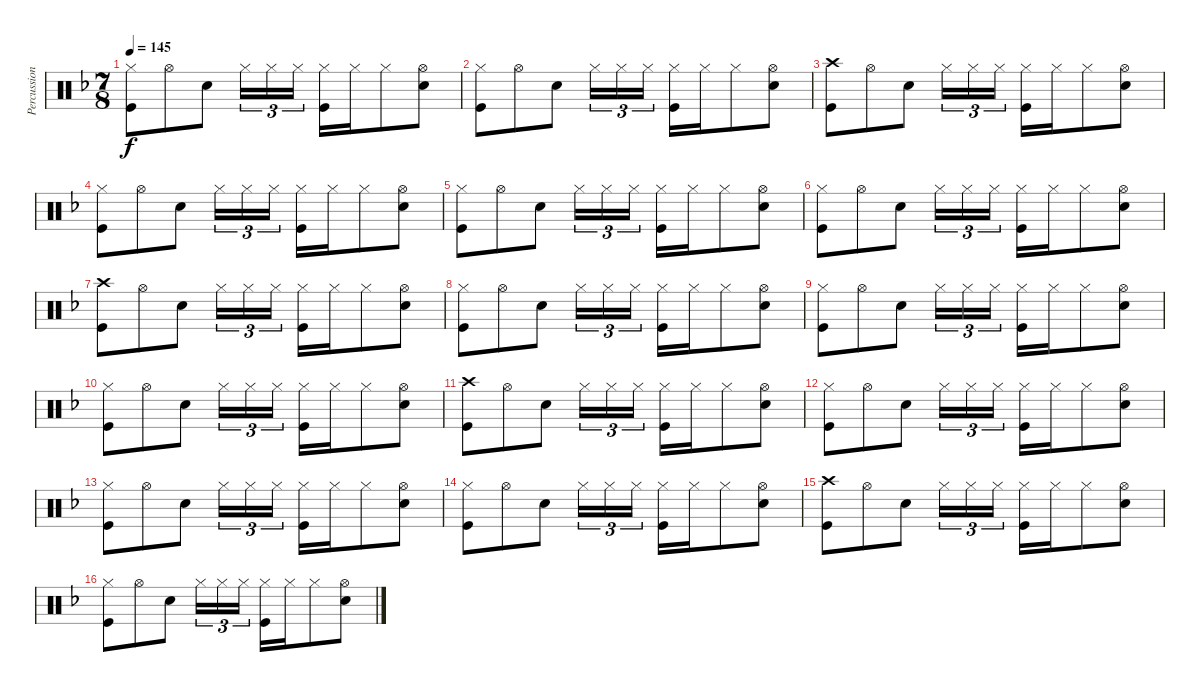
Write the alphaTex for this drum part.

\track ("Percussion" "Percussion") {instrument percussion}
\staff {score}
\articulation defaults
\ts (7 8)
\tempo 145
\clef neutral
\ks f
("Hi-Hat (closed)" "Kick (hit)").8{dy f} "Hi-Hat (open)".8 "Electric Snare (hit)".8 "Hi-Hat (closed)".16{tu (3 2)} "Hi-Hat (closed)".16{tu (3 2)} "Hi-Hat (closed)".16{tu (3 2)} ("Hi-Hat (closed)" "Kick (hit)").16 "Hi-Hat (closed)".16 "Hi-Hat (closed)".8 ("Hi-Hat (open)" "Electric Snare (hit)").8 |
("Hi-Hat (closed)" "Kick (hit)").8 "Hi-Hat (open)".8 "Electric Snare (hit)".8 "Hi-Hat (closed)".16{tu (3 2)} "Hi-Hat (closed)".16{tu (3 2)} "Hi-Hat (closed)".16{tu (3 2)} ("Hi-Hat (closed)" "Kick (hit)").16 "Hi-Hat (closed)".16 "Hi-Hat (closed)".8 ("Hi-Hat (open)" "Electric Snare (hit)").8 |
("Crash high (hit)" "Kick (hit)").8 "Hi-Hat (open)".8 "Electric Snare (hit)".8 "Hi-Hat (closed)".16{tu (3 2)} "Hi-Hat (closed)".16{tu (3 2)} "Hi-Hat (closed)".16{tu (3 2)} ("Hi-Hat (closed)" "Kick (hit)").16 "Hi-Hat (closed)".16 "Hi-Hat (closed)".8 ("Hi-Hat (open)" "Electric Snare (hit)").8 |
("Hi-Hat (closed)" "Kick (hit)").8 "Hi-Hat (open)".8 "Electric Snare (hit)".8 "Hi-Hat (closed)".16{tu (3 2)} "Hi-Hat (closed)".16{tu (3 2)} "Hi-Hat (closed)".16{tu (3 2)} ("Hi-Hat (closed)" "Kick (hit)").16 "Hi-Hat (closed)".16 "Hi-Hat (closed)".8 ("Hi-Hat (open)" "Electric Snare (hit)").8 |
("Hi-Hat (closed)" "Kick (hit)").8 "Hi-Hat (open)".8 "Electric Snare (hit)".8 "Hi-Hat (closed)".16{tu (3 2)} "Hi-Hat (closed)".16{tu (3 2)} "Hi-Hat (closed)".16{tu (3 2)} ("Hi-Hat (closed)" "Kick (hit)").16 "Hi-Hat (closed)".16 "Hi-Hat (closed)".8 ("Hi-Hat (open)" "Electric Snare (hit)").8 |
("Hi-Hat (closed)" "Kick (hit)").8 "Hi-Hat (open)".8 "Electric Snare (hit)".8 "Hi-Hat (closed)".16{tu (3 2)} "Hi-Hat (closed)".16{tu (3 2)} "Hi-Hat (closed)".16{tu (3 2)} ("Hi-Hat (closed)" "Kick (hit)").16 "Hi-Hat (closed)".16 "Hi-Hat (closed)".8 ("Hi-Hat (open)" "Electric Snare (hit)").8 |
("Crash high (hit)" "Kick (hit)").8 "Hi-Hat (open)".8 "Electric Snare (hit)".8 "Hi-Hat (closed)".16{tu (3 2)} "Hi-Hat (closed)".16{tu (3 2)} "Hi-Hat (closed)".16{tu (3 2)} ("Hi-Hat (closed)" "Kick (hit)").16 "Hi-Hat (closed)".16 "Hi-Hat (closed)".8 ("Hi-Hat (open)" "Electric Snare (hit)").8 |
("Hi-Hat (closed)" "Kick (hit)").8 "Hi-Hat (open)".8 "Electric Snare (hit)".8 "Hi-Hat (closed)".16{tu (3 2)} "Hi-Hat (closed)".16{tu (3 2)} "Hi-Hat (closed)".16{tu (3 2)} ("Hi-Hat (closed)" "Kick (hit)").16 "Hi-Hat (closed)".16 "Hi-Hat (closed)".8 ("Hi-Hat (open)" "Electric Snare (hit)").8 |
("Hi-Hat (closed)" "Kick (hit)").8 "Hi-Hat (open)".8 "Electric Snare (hit)".8 "Hi-Hat (closed)".16{tu (3 2)} "Hi-Hat (closed)".16{tu (3 2)} "Hi-Hat (closed)".16{tu (3 2)} ("Hi-Hat (closed)" "Kick (hit)").16 "Hi-Hat (closed)".16 "Hi-Hat (closed)".8 ("Hi-Hat (open)" "Electric Snare (hit)").8 |
("Hi-Hat (closed)" "Kick (hit)").8 "Hi-Hat (open)".8 "Electric Snare (hit)".8 "Hi-Hat (closed)".16{tu (3 2)} "Hi-Hat (closed)".16{tu (3 2)} "Hi-Hat (closed)".16{tu (3 2)} ("Hi-Hat (closed)" "Kick (hit)").16 "Hi-Hat (closed)".16 "Hi-Hat (closed)".8 ("Hi-Hat (open)" "Electric Snare (hit)").8 |
("Crash high (hit)" "Kick (hit)").8 "Hi-Hat (open)".8 "Electric Snare (hit)".8 "Hi-Hat (closed)".16{tu (3 2)} "Hi-Hat (closed)".16{tu (3 2)} "Hi-Hat (closed)".16{tu (3 2)} ("Hi-Hat (closed)" "Kick (hit)").16 "Hi-Hat (closed)".16 "Hi-Hat (closed)".8 ("Hi-Hat (open)" "Electric Snare (hit)").8 |
("Hi-Hat (closed)" "Kick (hit)").8 "Hi-Hat (open)".8 "Electric Snare (hit)".8 "Hi-Hat (closed)".16{tu (3 2)} "Hi-Hat (closed)".16{tu (3 2)} "Hi-Hat (closed)".16{tu (3 2)} ("Hi-Hat (closed)" "Kick (hit)").16 "Hi-Hat (closed)".16 "Hi-Hat (closed)".8 ("Hi-Hat (open)" "Electric Snare (hit)").8 |
("Hi-Hat (closed)" "Kick (hit)").8 "Hi-Hat (open)".8 "Electric Snare (hit)".8 "Hi-Hat (closed)".16{tu (3 2)} "Hi-Hat (closed)".16{tu (3 2)} "Hi-Hat (closed)".16{tu (3 2)} ("Hi-Hat (closed)" "Kick (hit)").16 "Hi-Hat (closed)".16 "Hi-Hat (closed)".8 ("Hi-Hat (open)" "Electric Snare (hit)").8 |
("Hi-Hat (closed)" "Kick (hit)").8 "Hi-Hat (open)".8 "Electric Snare (hit)".8 "Hi-Hat (closed)".16{tu (3 2)} "Hi-Hat (closed)".16{tu (3 2)} "Hi-Hat (closed)".16{tu (3 2)} ("Hi-Hat (closed)" "Kick (hit)").16 "Hi-Hat (closed)".16 "Hi-Hat (closed)".8 ("Hi-Hat (open)" "Electric Snare (hit)").8 |
("Crash high (hit)" "Kick (hit)").8 "Hi-Hat (open)".8 "Electric Snare (hit)".8 "Hi-Hat (closed)".16{tu (3 2)} "Hi-Hat (closed)".16{tu (3 2)} "Hi-Hat (closed)".16{tu (3 2)} ("Hi-Hat (closed)" "Kick (hit)").16 "Hi-Hat (closed)".16 "Hi-Hat (closed)".8 ("Hi-Hat (open)" "Electric Snare (hit)").8 |
("Hi-Hat (closed)" "Kick (hit)").8 "Hi-Hat (open)".8 "Electric Snare (hit)".8 "Hi-Hat (closed)".16{tu (3 2)} "Hi-Hat (closed)".16{tu (3 2)} "Hi-Hat (closed)".16{tu (3 2)} ("Hi-Hat (closed)" "Kick (hit)").16 "Hi-Hat (closed)".16 "Hi-Hat (closed)".8 ("Hi-Hat (open)" "Electric Snare (hit)").8
